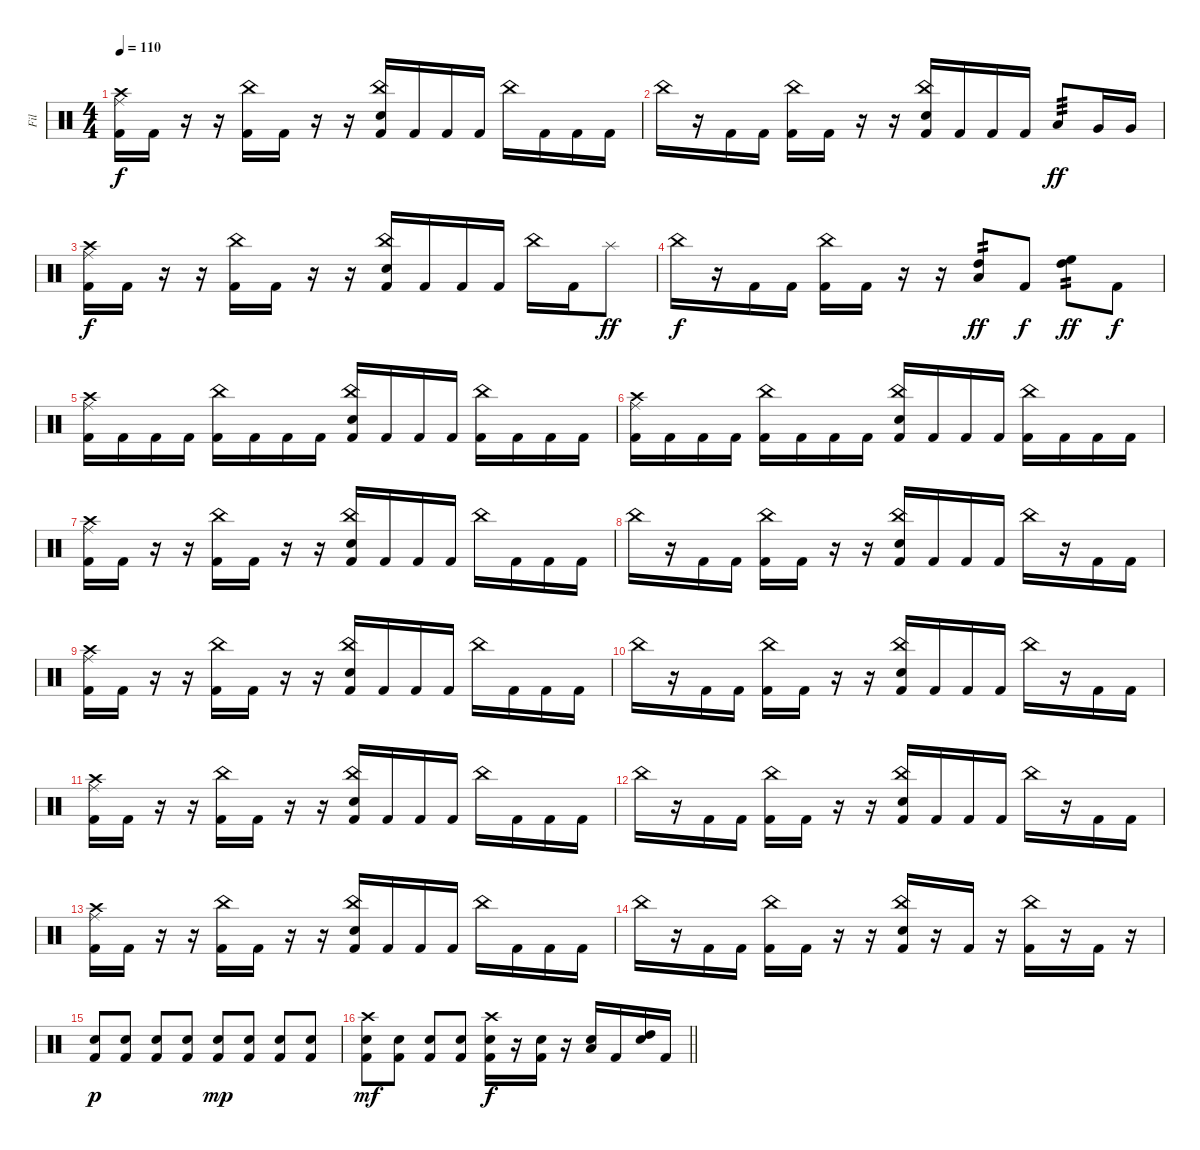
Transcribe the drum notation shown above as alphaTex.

\track ("Fil" "Fil") {instrument percussion}
\staff {score}
\articulation defaults
\ts (4 4)
\tempo 110
\clef neutral
\ks c
("Ride (middle)" "Crash high (hit)" "Kick (hit) 2").16{dy f} "Kick (hit) 2".16 r.16 r.16 ("China (hit)" "Kick (hit) 2").16 "Kick (hit) 2".16 r.16 r.16 ("China (hit)" "Electric Snare (hit)" "Kick (hit) 2").16 "Kick (hit) 2".16 "Kick (hit) 2".16 "Kick (hit) 2".16 "China (hit)".16 "Kick (hit) 2".16 "Kick (hit) 2".16 "Kick (hit) 2".16 |
"China (hit)".16 r.16 "Kick (hit) 2".16 "Kick (hit) 2".16 ("China (hit)" "Kick (hit) 2").16 "Kick (hit) 2".16 r.16 r.16 ("China (hit)" "Electric Snare (hit)" "Kick (hit) 2").16 "Kick (hit) 2".16 "Kick (hit) 2".16 "Kick (hit) 2".16 "Low Tom (hit)".8{tp 3 dy ff} "Very Low Tom (hit)".16 "Very Low Tom (hit)".16 |
("Ride (middle)" "Crash high (hit)" "Kick (hit) 2").16{dy f} "Kick (hit) 2".16 r.16 r.16 ("China (hit)" "Kick (hit) 2").16 "Kick (hit) 2".16 r.16 r.16 ("China (hit)" "Electric Snare (hit)" "Kick (hit) 2").16 "Kick (hit) 2".16 "Kick (hit) 2".16 "Kick (hit) 2".16 "China (hit)".16 "Kick (hit) 2".16 "Splash (hit)".8{dy ff} |
"China (hit)".16{dy f} r.16 "Kick (hit) 2".16 "Kick (hit) 2".16 ("China (hit)" "Kick (hit) 2").16 "Kick (hit) 2".16 r.16 r.16 ("Low Tom (hit)" "High Tom (hit)").8{tp 2 dy ff} "Kick (hit) 2".8{dy f} ("High Tom (hit)" "High Floor Tom (hit)").8{tp 2 dy ff} "Kick (hit) 2".8{dy f} |
("Ride (middle)" "Crash high (hit)" "Kick (hit) 2").16 "Kick (hit) 2".16 "Kick (hit) 2".16 "Kick (hit) 2".16 ("China (hit)" "Kick (hit) 2").16 "Kick (hit) 2".16 "Kick (hit) 2".16 "Kick (hit) 2".16 ("China (hit)" "Electric Snare (hit)" "Kick (hit) 2").16 "Kick (hit) 2".16 "Kick (hit) 2".16 "Kick (hit) 2".16 ("China (hit)" "Kick (hit) 2").16 "Kick (hit) 2".16 "Kick (hit) 2".16 "Kick (hit) 2".16 |
("Ride (middle)" "Crash high (hit)" "Kick (hit) 2").16 "Kick (hit) 2".16 "Kick (hit) 2".16 "Kick (hit) 2".16 ("China (hit)" "Kick (hit) 2").16 "Kick (hit) 2".16 "Kick (hit) 2".16 "Kick (hit) 2".16 ("China (hit)" "Electric Snare (hit)" "Kick (hit) 2").16 "Kick (hit) 2".16 "Kick (hit) 2".16 "Kick (hit) 2".16 ("China (hit)" "Kick (hit) 2").16 "Kick (hit) 2".16 "Kick (hit) 2".16 "Kick (hit) 2".16 |
("Ride (middle)" "Crash high (hit)" "Kick (hit) 2").16 "Kick (hit) 2".16 r.16 r.16 ("China (hit)" "Kick (hit) 2").16 "Kick (hit) 2".16 r.16 r.16 ("China (hit)" "Electric Snare (hit)" "Kick (hit) 2").16 "Kick (hit) 2".16 "Kick (hit) 2".16 "Kick (hit) 2".16 "China (hit)".16 "Kick (hit) 2".16 "Kick (hit) 2".16 "Kick (hit) 2".16 |
"China (hit)".16 r.16 "Kick (hit) 2".16 "Kick (hit) 2".16 ("China (hit)" "Kick (hit) 2").16 "Kick (hit) 2".16 r.16 r.16 ("China (hit)" "Electric Snare (hit)" "Kick (hit) 2").16 "Kick (hit) 2".16 "Kick (hit) 2".16 "Kick (hit) 2".16 "China (hit)".16 r.16 "Kick (hit) 2".16 "Kick (hit) 2".16 |
("Ride (middle)" "Crash high (hit)" "Kick (hit) 2").16 "Kick (hit) 2".16 r.16 r.16 ("China (hit)" "Kick (hit) 2").16 "Kick (hit) 2".16 r.16 r.16 ("China (hit)" "Electric Snare (hit)" "Kick (hit) 2").16 "Kick (hit) 2".16 "Kick (hit) 2".16 "Kick (hit) 2".16 "China (hit)".16 "Kick (hit) 2".16 "Kick (hit) 2".16 "Kick (hit) 2".16 |
"China (hit)".16 r.16 "Kick (hit) 2".16 "Kick (hit) 2".16 ("China (hit)" "Kick (hit) 2").16 "Kick (hit) 2".16 r.16 r.16 ("China (hit)" "Electric Snare (hit)" "Kick (hit) 2").16 "Kick (hit) 2".16 "Kick (hit) 2".16 "Kick (hit) 2".16 "China (hit)".16 r.16 "Kick (hit) 2".16 "Kick (hit) 2".16 |
("Ride (middle)" "Crash high (hit)" "Kick (hit) 2").16 "Kick (hit) 2".16 r.16 r.16 ("China (hit)" "Kick (hit) 2").16 "Kick (hit) 2".16 r.16 r.16 ("China (hit)" "Electric Snare (hit)" "Kick (hit) 2").16 "Kick (hit) 2".16 "Kick (hit) 2".16 "Kick (hit) 2".16 "China (hit)".16 "Kick (hit) 2".16 "Kick (hit) 2".16 "Kick (hit) 2".16 |
"China (hit)".16 r.16 "Kick (hit) 2".16 "Kick (hit) 2".16 ("China (hit)" "Kick (hit) 2").16 "Kick (hit) 2".16 r.16 r.16 ("China (hit)" "Electric Snare (hit)" "Kick (hit) 2").16 "Kick (hit) 2".16 "Kick (hit) 2".16 "Kick (hit) 2".16 "China (hit)".16 r.16 "Kick (hit) 2".16 "Kick (hit) 2".16 |
("Ride (middle)" "Crash high (hit)" "Kick (hit) 2").16 "Kick (hit) 2".16 r.16 r.16 ("China (hit)" "Kick (hit) 2").16 "Kick (hit) 2".16 r.16 r.16 ("China (hit)" "Electric Snare (hit)" "Kick (hit) 2").16 "Kick (hit) 2".16 "Kick (hit) 2".16 "Kick (hit) 2".16 "China (hit)".16 "Kick (hit) 2".16 "Kick (hit) 2".16 "Kick (hit) 2".16 |
"China (hit)".16 r.16 "Kick (hit) 2".16 "Kick (hit) 2".16 ("China (hit)" "Kick (hit) 2").16 "Kick (hit) 2".16 r.16 r.16 ("China (hit)" "Electric Snare (hit)" "Kick (hit) 2").16 r.16 "Kick (hit) 2".16 r.16 ("China (hit)" "Kick (hit) 2").16 r.16 "Kick (hit) 2".16 r.16 |
("Snare (hit) 2" "Kick (hit) 2").8{dy p} ("Snare (hit) 2" "Kick (hit) 2").8 ("Snare (hit) 2" "Kick (hit) 2").8 ("Snare (hit) 2" "Kick (hit) 2").8 ("Snare (hit) 2" "Kick (hit) 2").8{dy mp} ("Snare (hit) 2" "Kick (hit) 2").8 ("Snare (hit) 2" "Kick (hit) 2").8 ("Snare (hit) 2" "Kick (hit) 2").8 |
\barLineRight lightlight
("Crash high (hit)" "Snare (hit) 2" "Kick (hit) 2").8{dy mf} ("Snare (hit) 2" "Kick (hit) 2").8 ("Snare (hit) 2" "Kick (hit) 2").8 ("Snare (hit) 2" "Kick (hit) 2").8 ("Crash high (hit)" "Snare (hit) 2" "Kick (hit) 2").16{dy f} r.16 ("Snare (hit) 2" "Kick (hit) 2").16 r.16 ("Low Tom (hit)" "Snare (hit) 2").16 "Kick (hit) 2".16 ("High Tom (hit)" "Snare (hit) 2").16 "Kick (hit) 2".16
